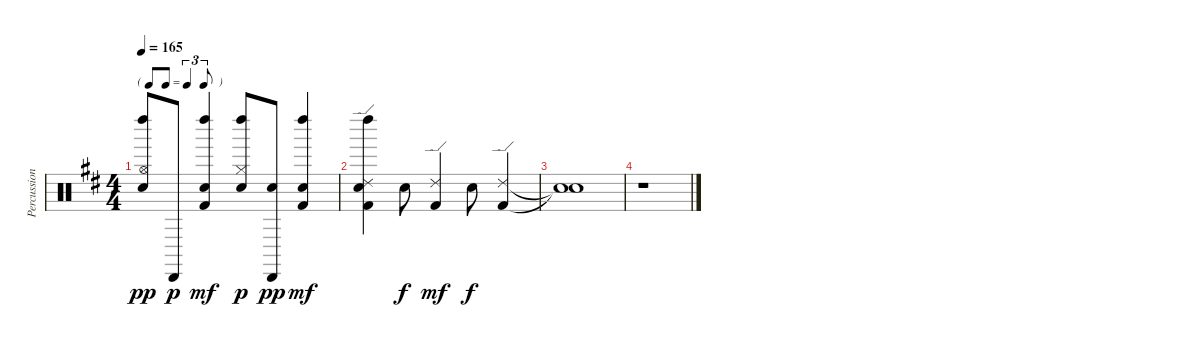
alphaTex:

\track ("Percussion" "Percussion") {instrument percussion}
\staff {score}
\articulation defaults
\ts (4 4)
\tf triplet8th
\tempo 165
\clef neutral
\ks d
("Snare (hit) 2" "Hi-Hat (open)" "Left Maraca (hit)").8{dy pp} "Cabasa (hit)".8{dy p} ("Kick (hit) 2" "Snare (hit) 2" "Left Maraca (hit)").4{dy mf} ("Hi-Hat (closed)" "Snare (hit) 2" "Left Maraca (hit)").8{dy p} ("Snare (hit) 2" "Cabasa (hit)").8{dy pp} ("Snare (hit) 2" "Kick (hit) 2" "Left Maraca (hit)").4{dy mf} |
("Snare (hit) 2" "Left Maraca (hit)" "Kick (hit) 2" "Ride (edge) 2").4 "Snare (hit) 2".8{dy f} ("Ride (edge) 2" "Kick (hit) 2").4{dy mf} "Snare (hit) 2".8{dy f} ("Kick (hit) 2" "Ride (edge) 2").4 |
("Snare (hit)"{t} "Snare (hit)"{t}).1 |
r.1
